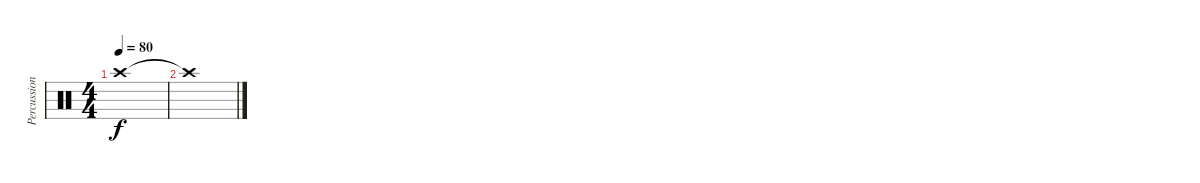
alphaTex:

\track ("Percussion" "Percussion") {instrument percussion}
\staff {score}
\articulation defaults
\ts (4 4)
\tempo 80
\clef neutral
\ks c "Crash high (hit)".1{dy f}
|
"Crash high (hit)"{t}.1
